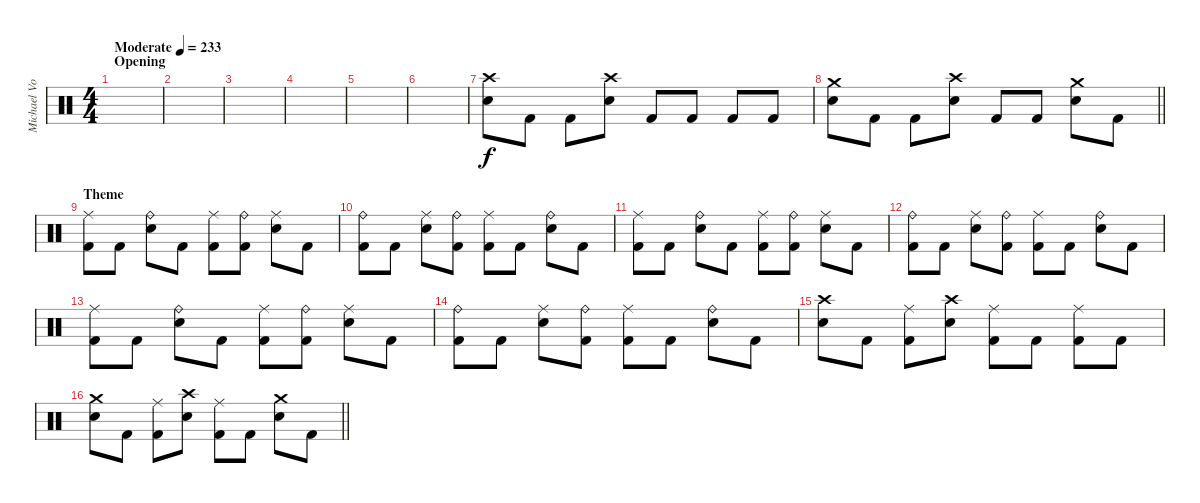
\track ("Michael Von Knorring" "Michael Vo") {instrument percussion}
\staff {score}
\articulation defaults
\ts (4 4)
\section ("" "Opening")
\tempo (233 "Moderate")
\clef neutral
\ks c
|
|
|
|
|
|
("Crash high (hit)" "Snare (hit) 2").8 "Kick (hit) 2".8 "Kick (hit) 2".8 ("Crash high (hit)" "Snare (hit) 2").8 "Kick (hit) 2".8 "Kick (hit) 2".8 "Kick (hit) 2".8 "Kick (hit) 2".8 |
\barLineRight lightlight
("Crash medium (hit)" "Snare (hit) 2").8 "Kick (hit) 2".8 "Kick (hit) 2".8 ("Crash high (hit)" "Snare (hit) 2").8 "Kick (hit) 2".8 "Kick (hit) 2".8 ("Crash medium (hit)" "Snare (hit) 2").8 "Kick (hit) 2".8 |
\section ("" "Theme")
("Ride (middle)" "Kick (hit) 2").8 "Kick (hit) 2".8 ("Ride (bell)" "Snare (hit) 2").8 "Kick (hit) 2".8 ("Ride (middle)" "Kick (hit) 2").8 ("Ride (bell)" "Kick (hit) 2").8 ("Ride (middle)" "Snare (hit) 2").8 "Kick (hit) 2".8 |
("Ride (bell)" "Kick (hit) 2").8 "Kick (hit) 2".8 ("Ride (middle)" "Snare (hit) 2").8 ("Ride (bell)" "Kick (hit) 2").8 ("Ride (middle)" "Kick (hit) 2").8 "Kick (hit) 2".8 ("Ride (bell)" "Snare (hit) 2").8 "Kick (hit) 2".8 |
("Ride (middle)" "Kick (hit) 2").8 "Kick (hit) 2".8 ("Ride (bell)" "Snare (hit) 2").8 "Kick (hit) 2".8 ("Ride (middle)" "Kick (hit) 2").8 ("Ride (bell)" "Kick (hit) 2").8 ("Ride (middle)" "Snare (hit) 2").8 "Kick (hit) 2".8 |
("Ride (bell)" "Kick (hit) 2").8 "Kick (hit) 2".8 ("Ride (middle)" "Snare (hit) 2").8 ("Ride (bell)" "Kick (hit) 2").8 ("Ride (middle)" "Kick (hit) 2").8 "Kick (hit) 2".8 ("Ride (bell)" "Snare (hit) 2").8 "Kick (hit) 2".8 |
("Ride (middle)" "Kick (hit) 2").8 "Kick (hit) 2".8 ("Ride (bell)" "Snare (hit) 2").8 "Kick (hit) 2".8 ("Ride (middle)" "Kick (hit) 2").8 ("Ride (bell)" "Kick (hit) 2").8 ("Ride (middle)" "Snare (hit) 2").8 "Kick (hit) 2".8 |
("Ride (bell)" "Kick (hit) 2").8 "Kick (hit) 2".8 ("Ride (middle)" "Snare (hit) 2").8 ("Ride (bell)" "Kick (hit) 2").8 ("Ride (middle)" "Kick (hit) 2").8 "Kick (hit) 2".8 ("Ride (bell)" "Snare (hit) 2").8 "Kick (hit) 2".8 |
("Crash high (hit)" "Snare (hit) 2").8 "Kick (hit) 2".8 ("Ride (middle)" "Kick (hit) 2").8 ("Crash high (hit)" "Snare (hit) 2").8 ("Ride (middle)" "Kick (hit) 2").8 "Kick (hit) 2".8 ("Ride (middle)" "Kick (hit) 2").8 "Kick (hit) 2".8 |
\barLineRight lightlight
("Crash medium (hit)" "Snare (hit) 2").8 "Kick (hit) 2".8 ("Ride (middle)" "Kick (hit) 2").8 ("Crash high (hit)" "Snare (hit) 2").8 ("Ride (middle)" "Kick (hit) 2").8 "Kick (hit) 2".8 ("Crash medium (hit)" "Snare (hit) 2").8 "Kick (hit) 2".8
